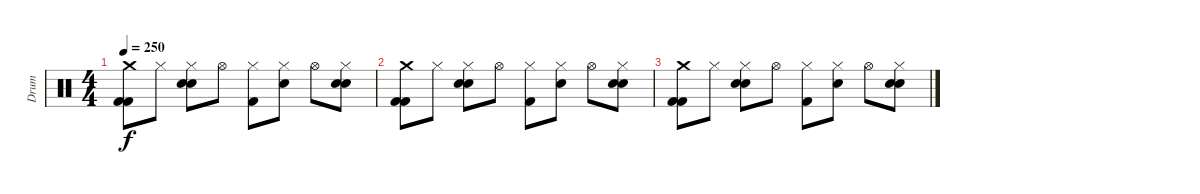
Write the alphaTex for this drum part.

\track ("Drum" "Drum") {instrument percussion}
\staff {score}
\articulation defaults
\ts (4 4)
\tempo 250
\clef neutral
\ks c
("Crash medium (hit)" "Kick (hit) 2" "Kick (hit) 2").8{dy f} "Hi-Hat (closed)".8 ("Hi-Hat (closed)" "Snare (hit) 2" "Snare (hit) 2").8 "Hi-Hat (open)".8 ("Hi-Hat (closed)" "Kick (hit) 2").8 ("Hi-Hat (closed)" "Snare (hit) 2").8 "Hi-Hat (open)".8 ("Hi-Hat (closed)" "Snare (hit) 2" "Snare (hit) 2").8 |
("Crash medium (hit)" "Kick (hit) 2" "Kick (hit) 2").8 "Hi-Hat (closed)".8 ("Hi-Hat (closed)" "Snare (hit) 2" "Snare (hit) 2").8 "Hi-Hat (open)".8 ("Hi-Hat (closed)" "Kick (hit) 2").8 ("Hi-Hat (closed)" "Snare (hit) 2").8 "Hi-Hat (open)".8 ("Hi-Hat (closed)" "Snare (hit) 2" "Snare (hit) 2").8 |
("Crash medium (hit)" "Kick (hit) 2" "Kick (hit) 2").8 "Hi-Hat (closed)".8 ("Hi-Hat (closed)" "Snare (hit) 2" "Snare (hit) 2").8 "Hi-Hat (open)".8 ("Hi-Hat (closed)" "Kick (hit) 2").8 ("Hi-Hat (closed)" "Snare (hit) 2").8 "Hi-Hat (open)".8 ("Hi-Hat (closed)" "Snare (hit) 2" "Snare (hit) 2").8
